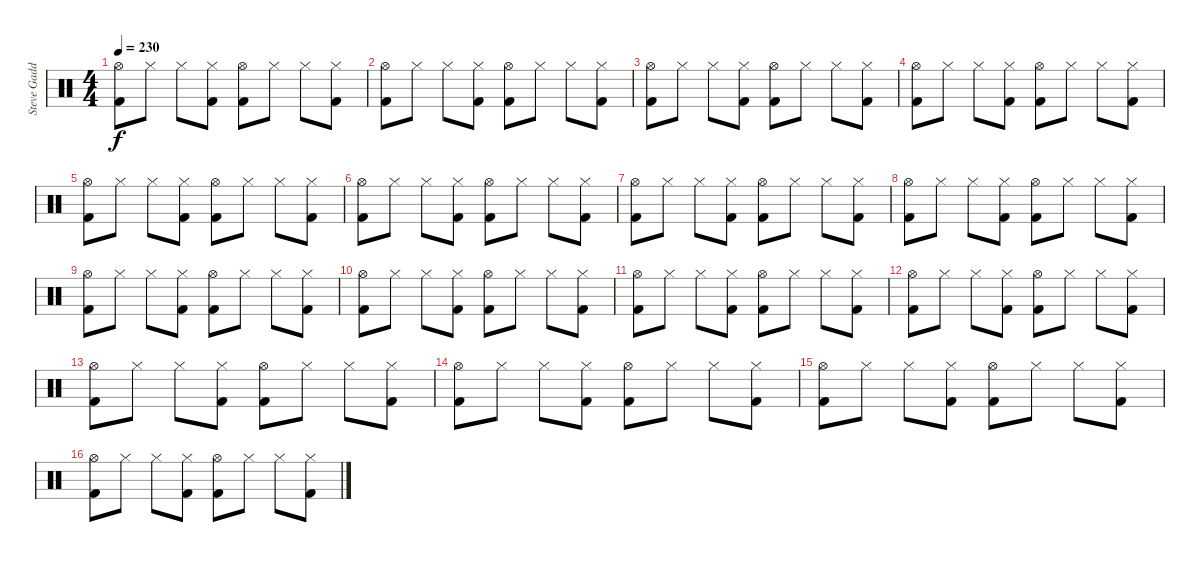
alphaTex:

\track ("Steve Gadd" "Steve Gadd") {instrument percussion}
\staff {score}
\articulation defaults
\ts (4 4)
\tempo 230
\clef neutral
\ks c
("Hi-Hat (open)" "Kick (hit) 2").8{dy f} "Hi-Hat (closed)".8 "Hi-Hat (closed)".8 ("Hi-Hat (closed)" "Kick (hit) 2").8 ("Hi-Hat (open)" "Kick (hit) 2").8 "Hi-Hat (closed)".8 "Hi-Hat (closed)".8 ("Hi-Hat (closed)" "Kick (hit) 2").8 |
("Hi-Hat (open)" "Kick (hit) 2").8 "Hi-Hat (closed)".8 "Hi-Hat (closed)".8 ("Hi-Hat (closed)" "Kick (hit) 2").8 ("Hi-Hat (open)" "Kick (hit) 2").8 "Hi-Hat (closed)".8 "Hi-Hat (closed)".8 ("Hi-Hat (closed)" "Kick (hit) 2").8 |
("Hi-Hat (open)" "Kick (hit) 2").8 "Hi-Hat (closed)".8 "Hi-Hat (closed)".8 ("Hi-Hat (closed)" "Kick (hit) 2").8 ("Hi-Hat (open)" "Kick (hit) 2").8 "Hi-Hat (closed)".8 "Hi-Hat (closed)".8 ("Hi-Hat (closed)" "Kick (hit) 2").8 |
("Hi-Hat (open)" "Kick (hit) 2").8 "Hi-Hat (closed)".8 "Hi-Hat (closed)".8 ("Hi-Hat (closed)" "Kick (hit) 2").8 ("Hi-Hat (open)" "Kick (hit) 2").8 "Hi-Hat (closed)".8 "Hi-Hat (closed)".8 ("Hi-Hat (closed)" "Kick (hit) 2").8 |
("Hi-Hat (open)" "Kick (hit) 2").8 "Hi-Hat (closed)".8 "Hi-Hat (closed)".8 ("Hi-Hat (closed)" "Kick (hit) 2").8 ("Hi-Hat (open)" "Kick (hit) 2").8 "Hi-Hat (closed)".8 "Hi-Hat (closed)".8 ("Hi-Hat (closed)" "Kick (hit) 2").8 |
("Hi-Hat (open)" "Kick (hit) 2").8 "Hi-Hat (closed)".8 "Hi-Hat (closed)".8 ("Hi-Hat (closed)" "Kick (hit) 2").8 ("Hi-Hat (open)" "Kick (hit) 2").8 "Hi-Hat (closed)".8 "Hi-Hat (closed)".8 ("Hi-Hat (closed)" "Kick (hit) 2").8 |
("Hi-Hat (open)" "Kick (hit) 2").8 "Hi-Hat (closed)".8 "Hi-Hat (closed)".8 ("Hi-Hat (closed)" "Kick (hit) 2").8 ("Hi-Hat (open)" "Kick (hit) 2").8 "Hi-Hat (closed)".8 "Hi-Hat (closed)".8 ("Hi-Hat (closed)" "Kick (hit) 2").8 |
("Hi-Hat (open)" "Kick (hit) 2").8 "Hi-Hat (closed)".8 "Hi-Hat (closed)".8 ("Hi-Hat (closed)" "Kick (hit) 2").8 ("Hi-Hat (open)" "Kick (hit) 2").8 "Hi-Hat (closed)".8 "Hi-Hat (closed)".8 ("Hi-Hat (closed)" "Kick (hit) 2").8 |
("Hi-Hat (open)" "Kick (hit) 2").8 "Hi-Hat (closed)".8 "Hi-Hat (closed)".8 ("Hi-Hat (closed)" "Kick (hit) 2").8 ("Hi-Hat (open)" "Kick (hit) 2").8 "Hi-Hat (closed)".8 "Hi-Hat (closed)".8 ("Hi-Hat (closed)" "Kick (hit) 2").8 |
("Hi-Hat (open)" "Kick (hit) 2").8 "Hi-Hat (closed)".8 "Hi-Hat (closed)".8 ("Hi-Hat (closed)" "Kick (hit) 2").8 ("Hi-Hat (open)" "Kick (hit) 2").8 "Hi-Hat (closed)".8 "Hi-Hat (closed)".8 ("Hi-Hat (closed)" "Kick (hit) 2").8 |
("Hi-Hat (open)" "Kick (hit) 2").8 "Hi-Hat (closed)".8 "Hi-Hat (closed)".8 ("Hi-Hat (closed)" "Kick (hit) 2").8 ("Hi-Hat (open)" "Kick (hit) 2").8 "Hi-Hat (closed)".8 "Hi-Hat (closed)".8 ("Hi-Hat (closed)" "Kick (hit) 2").8 |
("Hi-Hat (open)" "Kick (hit) 2").8 "Hi-Hat (closed)".8 "Hi-Hat (closed)".8 ("Hi-Hat (closed)" "Kick (hit) 2").8 ("Hi-Hat (open)" "Kick (hit) 2").8 "Hi-Hat (closed)".8 "Hi-Hat (closed)".8 ("Hi-Hat (closed)" "Kick (hit) 2").8 |
("Hi-Hat (open)" "Kick (hit) 2").8 "Hi-Hat (closed)".8 "Hi-Hat (closed)".8 ("Hi-Hat (closed)" "Kick (hit) 2").8 ("Hi-Hat (open)" "Kick (hit) 2").8 "Hi-Hat (closed)".8 "Hi-Hat (closed)".8 ("Hi-Hat (closed)" "Kick (hit) 2").8 |
("Hi-Hat (open)" "Kick (hit) 2").8 "Hi-Hat (closed)".8 "Hi-Hat (closed)".8 ("Hi-Hat (closed)" "Kick (hit) 2").8 ("Hi-Hat (open)" "Kick (hit) 2").8 "Hi-Hat (closed)".8 "Hi-Hat (closed)".8 ("Hi-Hat (closed)" "Kick (hit) 2").8 |
("Hi-Hat (open)" "Kick (hit) 2").8 "Hi-Hat (closed)".8 "Hi-Hat (closed)".8 ("Hi-Hat (closed)" "Kick (hit) 2").8 ("Hi-Hat (open)" "Kick (hit) 2").8 "Hi-Hat (closed)".8 "Hi-Hat (closed)".8 ("Hi-Hat (closed)" "Kick (hit) 2").8 |
("Hi-Hat (open)" "Kick (hit) 2").8 "Hi-Hat (closed)".8 "Hi-Hat (closed)".8 ("Hi-Hat (closed)" "Kick (hit) 2").8 ("Hi-Hat (open)" "Kick (hit) 2").8 "Hi-Hat (closed)".8 "Hi-Hat (closed)".8 ("Hi-Hat (closed)" "Kick (hit) 2").8
